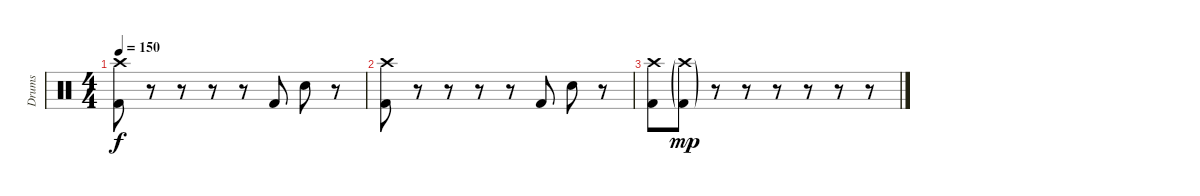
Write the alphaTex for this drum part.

\track ("Drums" "Drums") {instrument percussion}
\staff {score}
\articulation defaults
\ts (4 4)
\tempo 150
\clef neutral
\ks c
("Crash high (hit)" "Kick (hit) 2").8{dy f} r.8 r.8 r.8 r.8 "Kick (hit) 2".8 "Electric Snare (hit)".8 r.8 |
("Crash high (hit)" "Kick (hit) 2").8 r.8 r.8 r.8 r.8 "Kick (hit) 2".8 "Electric Snare (hit)".8 r.8 |
("Crash high (hit)" "Kick (hit) 2").8 ("Crash high (hit)"{g} "Kick (hit) 2"{g}).8{dy mp} r.8 r.8 r.8 r.8 r.8 r.8
